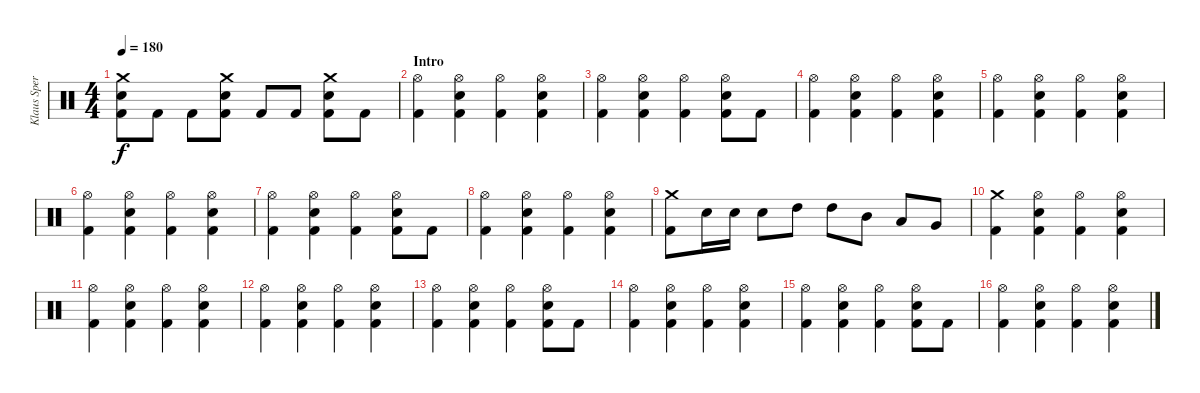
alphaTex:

\track ("Klaus Sperling Drums" "Klaus Sper") {instrument percussion}
\staff {score}
\articulation defaults
\ts (4 4)
\tempo 180
\clef neutral
\ks c
("Crash medium (hit)" "Electric Snare (hit)" "Kick (hit) 2").8{dy f} "Kick (hit) 2".8 "Kick (hit) 2".8 ("Crash medium (hit)" "Electric Snare (hit)" "Kick (hit) 2").8 "Kick (hit) 2".8 "Kick (hit) 2".8 ("Crash medium (hit)" "Electric Snare (hit)" "Kick (hit) 2").8 "Kick (hit) 2".8 |
\section ("" "Intro")
("Hi-Hat (open)" "Kick (hit) 2").4 ("Hi-Hat (open)" "Electric Snare (hit)" "Kick (hit) 2").4 ("Hi-Hat (open)" "Kick (hit) 2").4 ("Hi-Hat (open)" "Electric Snare (hit)" "Kick (hit) 2").4 |
("Hi-Hat (open)" "Kick (hit) 2").4 ("Hi-Hat (open)" "Electric Snare (hit)" "Kick (hit) 2").4 ("Hi-Hat (open)" "Kick (hit) 2").4 ("Hi-Hat (open)" "Electric Snare (hit)" "Kick (hit) 2").8 "Kick (hit) 2".8 |
("Hi-Hat (open)" "Kick (hit) 2").4 ("Hi-Hat (open)" "Electric Snare (hit)" "Kick (hit) 2").4 ("Hi-Hat (open)" "Kick (hit) 2").4 ("Hi-Hat (open)" "Electric Snare (hit)" "Kick (hit) 2").4 |
("Hi-Hat (open)" "Kick (hit) 2").4 ("Hi-Hat (open)" "Electric Snare (hit)" "Kick (hit) 2").4 ("Hi-Hat (open)" "Kick (hit) 2").4 ("Hi-Hat (open)" "Electric Snare (hit)" "Kick (hit) 2").4 |
("Hi-Hat (open)" "Kick (hit) 2").4 ("Hi-Hat (open)" "Electric Snare (hit)" "Kick (hit) 2").4 ("Hi-Hat (open)" "Kick (hit) 2").4 ("Hi-Hat (open)" "Electric Snare (hit)" "Kick (hit) 2").4 |
("Hi-Hat (open)" "Kick (hit) 2").4 ("Hi-Hat (open)" "Electric Snare (hit)" "Kick (hit) 2").4 ("Hi-Hat (open)" "Kick (hit) 2").4 ("Hi-Hat (open)" "Electric Snare (hit)" "Kick (hit) 2").8 "Kick (hit) 2".8 |
("Hi-Hat (open)" "Kick (hit) 2").4 ("Hi-Hat (open)" "Electric Snare (hit)" "Kick (hit) 2").4 ("Hi-Hat (open)" "Kick (hit) 2").4 ("Hi-Hat (open)" "Electric Snare (hit)" "Kick (hit) 2").4 |
("Crash medium (hit)" "Kick (hit) 2").8 "Electric Snare (hit)".16 "Electric Snare (hit)".16 "Electric Snare (hit)".8 "High Tom (hit)".8 "High Tom (hit)".8 "Mid Tom (hit)".8 "Low Tom (hit)".8 "Very Low Tom (hit)".8 |
("Crash medium (hit)" "Kick (hit) 2").4 ("Hi-Hat (open)" "Electric Snare (hit)" "Kick (hit) 2").4 ("Hi-Hat (open)" "Kick (hit) 2").4 ("Hi-Hat (open)" "Electric Snare (hit)" "Kick (hit) 2").4 |
("Hi-Hat (open)" "Kick (hit) 2").4 ("Hi-Hat (open)" "Electric Snare (hit)" "Kick (hit) 2").4 ("Hi-Hat (open)" "Kick (hit) 2").4 ("Hi-Hat (open)" "Electric Snare (hit)" "Kick (hit) 2").4 |
("Hi-Hat (open)" "Kick (hit) 2").4 ("Hi-Hat (open)" "Electric Snare (hit)" "Kick (hit) 2").4 ("Hi-Hat (open)" "Kick (hit) 2").4 ("Hi-Hat (open)" "Electric Snare (hit)" "Kick (hit) 2").4 |
("Hi-Hat (open)" "Kick (hit) 2").4 ("Hi-Hat (open)" "Electric Snare (hit)" "Kick (hit) 2").4 ("Hi-Hat (open)" "Kick (hit) 2").4 ("Hi-Hat (open)" "Electric Snare (hit)" "Kick (hit) 2").8 "Kick (hit) 2".8 |
("Hi-Hat (open)" "Kick (hit) 2").4 ("Hi-Hat (open)" "Electric Snare (hit)" "Kick (hit) 2").4 ("Hi-Hat (open)" "Kick (hit) 2").4 ("Hi-Hat (open)" "Electric Snare (hit)" "Kick (hit) 2").4 |
("Hi-Hat (open)" "Kick (hit) 2").4 ("Hi-Hat (open)" "Electric Snare (hit)" "Kick (hit) 2").4 ("Hi-Hat (open)" "Kick (hit) 2").4 ("Hi-Hat (open)" "Electric Snare (hit)" "Kick (hit) 2").8 "Kick (hit) 2".8 |
("Hi-Hat (open)" "Kick (hit) 2").4 ("Hi-Hat (open)" "Electric Snare (hit)" "Kick (hit) 2").4 ("Hi-Hat (open)" "Kick (hit) 2").4 ("Hi-Hat (open)" "Electric Snare (hit)" "Kick (hit) 2").4
